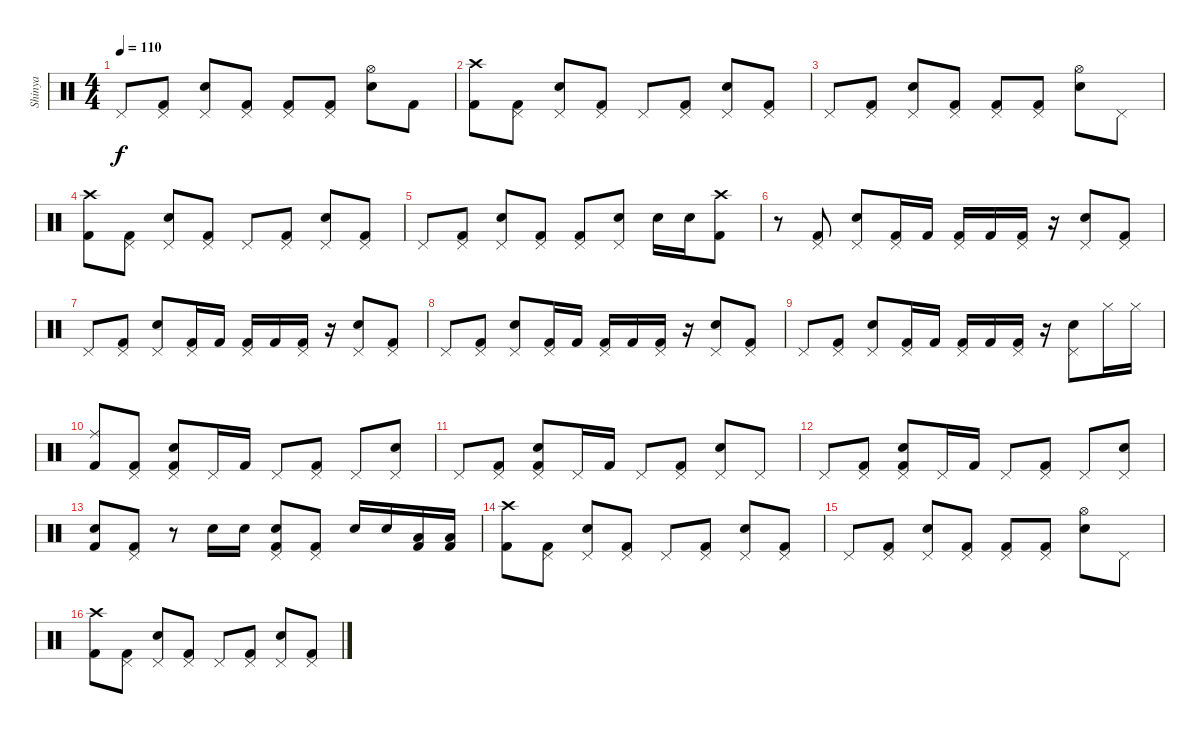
\track ("Shinya" "Shinya") {instrument percussion}
\staff {score}
\articulation defaults
\ts (4 4)
\tempo 110
\clef neutral
\ks c "Pedal Hi-Hat (hit)".8{dy f}
("Pedal Hi-Hat (hit)" "Kick (hit) 2").8 ("Pedal Hi-Hat (hit)" "Electric Snare (hit)").8 ("Pedal Hi-Hat (hit)" "Kick (hit) 2").8 ("Pedal Hi-Hat (hit)" "Kick (hit) 2").8 ("Pedal Hi-Hat (hit)" "Kick (hit) 2").8 ("Hi-Hat (open)" "Electric Snare (hit)").8 "Kick (hit) 2".8 |
("Crash high (hit)" "Kick (hit) 2").8 ("Pedal Hi-Hat (hit)" "Kick (hit) 2").8 ("Pedal Hi-Hat (hit)" "Electric Snare (hit)").8 ("Pedal Hi-Hat (hit)" "Kick (hit) 2").8 "Pedal Hi-Hat (hit)".8 ("Pedal Hi-Hat (hit)" "Kick (hit) 2").8 ("Pedal Hi-Hat (hit)" "Electric Snare (hit)").8 ("Pedal Hi-Hat (hit)" "Kick (hit) 2").8 |
"Pedal Hi-Hat (hit)".8 ("Pedal Hi-Hat (hit)" "Kick (hit) 2").8 ("Pedal Hi-Hat (hit)" "Electric Snare (hit)").8 ("Pedal Hi-Hat (hit)" "Kick (hit) 2").8 ("Pedal Hi-Hat (hit)" "Kick (hit) 2").8 ("Pedal Hi-Hat (hit)" "Kick (hit) 2").8 ("Hi-Hat (open)" "Electric Snare (hit)").8 "Pedal Hi-Hat (hit)".8 |
("Crash high (hit)" "Kick (hit) 2").8 ("Pedal Hi-Hat (hit)" "Kick (hit) 2").8 ("Pedal Hi-Hat (hit)" "Electric Snare (hit)").8 ("Pedal Hi-Hat (hit)" "Kick (hit) 2").8 "Pedal Hi-Hat (hit)".8 ("Pedal Hi-Hat (hit)" "Kick (hit) 2").8 ("Pedal Hi-Hat (hit)" "Electric Snare (hit)").8 ("Pedal Hi-Hat (hit)" "Kick (hit) 2").8 |
"Pedal Hi-Hat (hit)".8 ("Pedal Hi-Hat (hit)" "Kick (hit) 2").8 ("Pedal Hi-Hat (hit)" "Electric Snare (hit)").8 ("Pedal Hi-Hat (hit)" "Kick (hit) 2").8 ("Pedal Hi-Hat (hit)" "Kick (hit) 2").8 ("Pedal Hi-Hat (hit)" "Electric Snare (hit)").8 "Electric Snare (hit)".16 "Electric Snare (hit)".16 ("Crash high (hit)" "Kick (hit) 2").8 |
r.8 ("Pedal Hi-Hat (hit)" "Kick (hit) 2").8 ("Pedal Hi-Hat (hit)" "Electric Snare (hit)").8 ("Pedal Hi-Hat (hit)" "Kick (hit) 2").16 "Kick (hit) 2".16 ("Pedal Hi-Hat (hit)" "Kick (hit) 2").16 "Kick (hit) 2".16 ("Pedal Hi-Hat (hit)" "Kick (hit) 2").16 r.16 ("Pedal Hi-Hat (hit)" "Electric Snare (hit)").8 ("Pedal Hi-Hat (hit)" "Kick (hit) 2").8 |
"Pedal Hi-Hat (hit)".8 ("Pedal Hi-Hat (hit)" "Kick (hit) 2").8 ("Pedal Hi-Hat (hit)" "Electric Snare (hit)").8 ("Pedal Hi-Hat (hit)" "Kick (hit) 2").16 "Kick (hit) 2".16 ("Pedal Hi-Hat (hit)" "Kick (hit) 2").16 "Kick (hit) 2".16 ("Pedal Hi-Hat (hit)" "Kick (hit) 2").16 r.16 ("Pedal Hi-Hat (hit)" "Electric Snare (hit)").8 ("Pedal Hi-Hat (hit)" "Kick (hit) 2").8 |
"Pedal Hi-Hat (hit)".8 ("Pedal Hi-Hat (hit)" "Kick (hit) 2").8 ("Pedal Hi-Hat (hit)" "Electric Snare (hit)").8 ("Pedal Hi-Hat (hit)" "Kick (hit) 2").16 "Kick (hit) 2".16 ("Pedal Hi-Hat (hit)" "Kick (hit) 2").16 "Kick (hit) 2".16 ("Pedal Hi-Hat (hit)" "Kick (hit) 2").16 r.16 ("Pedal Hi-Hat (hit)" "Electric Snare (hit)").8 ("Pedal Hi-Hat (hit)" "Kick (hit) 2").8 |
"Pedal Hi-Hat (hit)".8 ("Pedal Hi-Hat (hit)" "Kick (hit) 2").8 ("Pedal Hi-Hat (hit)" "Electric Snare (hit)").8 ("Pedal Hi-Hat (hit)" "Kick (hit) 2").16 "Kick (hit) 2".16 ("Pedal Hi-Hat (hit)" "Kick (hit) 2").16 "Kick (hit) 2".16 ("Pedal Hi-Hat (hit)" "Kick (hit) 2").16 r.16 ("Pedal Hi-Hat (hit)" "Electric Snare (hit)").8 "Hi-Hat (closed)".16 "Hi-Hat (closed)".16 |
("Ride (middle)" "Kick (hit) 2").8 ("Pedal Hi-Hat (hit)" "Kick (hit) 2").8 ("Pedal Hi-Hat (hit)" "Electric Snare (hit)" "Kick (hit) 2").8 "Pedal Hi-Hat (hit)".16 "Kick (hit) 2".16 "Pedal Hi-Hat (hit)".8 ("Pedal Hi-Hat (hit)" "Kick (hit) 2").8 "Pedal Hi-Hat (hit)".8 ("Pedal Hi-Hat (hit)" "Electric Snare (hit)").8 |
"Pedal Hi-Hat (hit)".8 ("Pedal Hi-Hat (hit)" "Kick (hit) 2").8 ("Pedal Hi-Hat (hit)" "Electric Snare (hit)" "Kick (hit) 2").8 "Pedal Hi-Hat (hit)".16 "Kick (hit) 2".16 "Pedal Hi-Hat (hit)".8 ("Pedal Hi-Hat (hit)" "Kick (hit) 2").8 ("Pedal Hi-Hat (hit)" "Electric Snare (hit)").8 "Pedal Hi-Hat (hit)".8 |
"Pedal Hi-Hat (hit)".8 ("Pedal Hi-Hat (hit)" "Kick (hit) 2").8 ("Pedal Hi-Hat (hit)" "Electric Snare (hit)" "Kick (hit) 2").8 "Pedal Hi-Hat (hit)".16 "Kick (hit) 2".16 "Pedal Hi-Hat (hit)".8 ("Pedal Hi-Hat (hit)" "Kick (hit) 2").8 "Pedal Hi-Hat (hit)".8 ("Pedal Hi-Hat (hit)" "Electric Snare (hit)").8 |
("Electric Snare (hit)" "Kick (hit) 2").8 ("Pedal Hi-Hat (hit)" "Kick (hit) 2").8 r.8 "Electric Snare (hit)".16 "Electric Snare (hit)".16 ("Pedal Hi-Hat (hit)" "Electric Snare (hit)" "Kick (hit) 2").8 ("Pedal Hi-Hat (hit)" "Kick (hit) 2").8 "Electric Snare (hit)".16 "Electric Snare (hit)".16 ("Low Floor Tom (hit)" "Kick (hit) 2").16 ("Low Floor Tom (hit)" "Kick (hit) 2").16 |
("Crash high (hit)" "Kick (hit) 2").8 ("Pedal Hi-Hat (hit)" "Kick (hit) 2").8 ("Pedal Hi-Hat (hit)" "Electric Snare (hit)").8 ("Pedal Hi-Hat (hit)" "Kick (hit) 2").8 "Pedal Hi-Hat (hit)".8 ("Pedal Hi-Hat (hit)" "Kick (hit) 2").8 ("Pedal Hi-Hat (hit)" "Electric Snare (hit)").8 ("Pedal Hi-Hat (hit)" "Kick (hit) 2").8 |
"Pedal Hi-Hat (hit)".8 ("Pedal Hi-Hat (hit)" "Kick (hit) 2").8 ("Pedal Hi-Hat (hit)" "Electric Snare (hit)").8 ("Pedal Hi-Hat (hit)" "Kick (hit) 2").8 ("Pedal Hi-Hat (hit)" "Kick (hit) 2").8 ("Pedal Hi-Hat (hit)" "Kick (hit) 2").8 ("Hi-Hat (open)" "Electric Snare (hit)").8 "Pedal Hi-Hat (hit)".8 |
("Crash high (hit)" "Kick (hit) 2").8 ("Pedal Hi-Hat (hit)" "Kick (hit) 2").8 ("Pedal Hi-Hat (hit)" "Electric Snare (hit)").8 ("Pedal Hi-Hat (hit)" "Kick (hit) 2").8 "Pedal Hi-Hat (hit)".8 ("Pedal Hi-Hat (hit)" "Kick (hit) 2").8 ("Pedal Hi-Hat (hit)" "Electric Snare (hit)").8 ("Pedal Hi-Hat (hit)" "Kick (hit) 2").8
